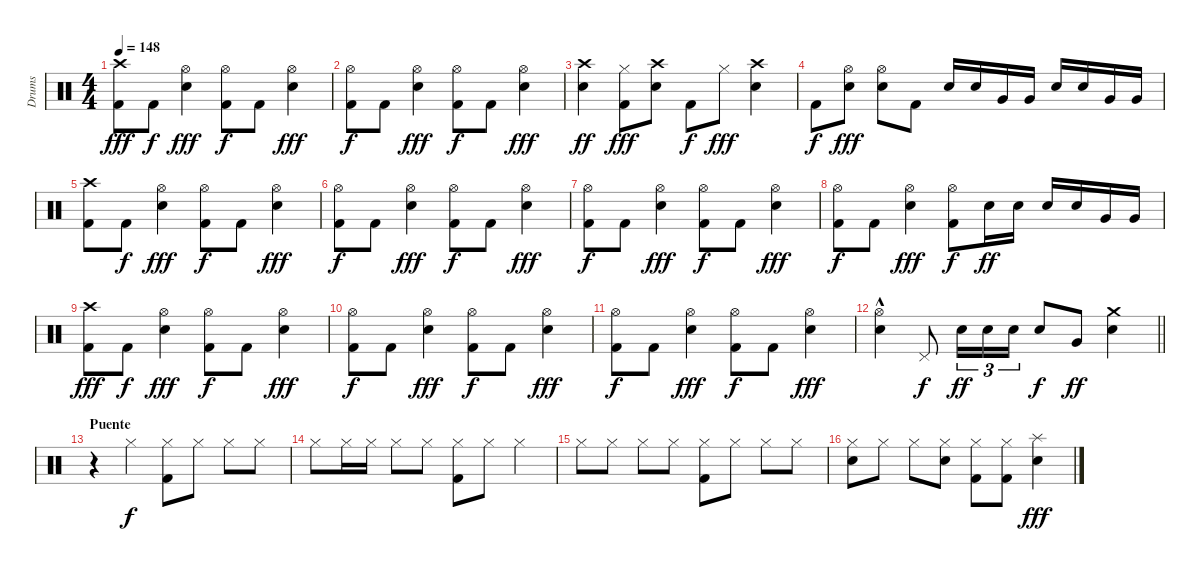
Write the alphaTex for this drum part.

\track ("Drums" "Drums") {instrument percussion}
\staff {score}
\articulation defaults
\ts (4 4)
\tempo 148
\clef neutral
\ks c
("Crash high (hit)" "Kick (hit) 2").8{dy fff} "Kick (hit) 2".8{dy f} ("Hi-Hat (open)" "Electric Snare (hit)").4{dy fff} ("Hi-Hat (open)" "Kick (hit) 2").8{dy f} "Kick (hit) 2".8 ("Hi-Hat (open)" "Electric Snare (hit)").4{dy fff} |
("Hi-Hat (open)" "Kick (hit) 2").8{dy f} "Kick (hit) 2".8 ("Hi-Hat (open)" "Electric Snare (hit)").4{dy fff} ("Hi-Hat (open)" "Kick (hit) 2").8{dy f} "Kick (hit) 2".8 ("Hi-Hat (open)" "Electric Snare (hit)").4{dy fff} |
("Crash high (hit)" "Electric Snare (hit)").4{dy ff} ("Hi-Hat (closed)" "Kick (hit) 2").8{dy fff} ("Crash high (hit)" "Electric Snare (hit)").8 "Kick (hit) 2".8{dy f} "Hi-Hat (closed)".8{dy fff} ("Crash high (hit)" "Electric Snare (hit)").4 |
"Kick (hit) 2".8{dy f} ("Hi-Hat (open)" "Electric Snare (hit)").8{dy fff} ("Hi-Hat (open)" "Electric Snare (hit)").8 "Kick (hit) 2".8 "Electric Snare (hit)".16 "Electric Snare (hit)".16 "Very Low Tom (hit)".16 "Very Low Tom (hit)".16 "Electric Snare (hit)".16 "Electric Snare (hit)".16 "Very Low Tom (hit)".16 "Very Low Tom (hit)".16 |
("Crash high (hit)" "Kick (hit) 2").8 "Kick (hit) 2".8{dy f} ("Hi-Hat (open)" "Electric Snare (hit)").4{dy fff} ("Hi-Hat (open)" "Kick (hit) 2").8{dy f} "Kick (hit) 2".8 ("Hi-Hat (open)" "Electric Snare (hit)").4{dy fff} |
("Hi-Hat (open)" "Kick (hit) 2").8{dy f} "Kick (hit) 2".8 ("Hi-Hat (open)" "Electric Snare (hit)").4{dy fff} ("Hi-Hat (open)" "Kick (hit) 2").8{dy f} "Kick (hit) 2".8 ("Hi-Hat (open)" "Electric Snare (hit)").4{dy fff} |
("Hi-Hat (open)" "Kick (hit) 2").8{dy f} "Kick (hit) 2".8 ("Hi-Hat (open)" "Electric Snare (hit)").4{dy fff} ("Hi-Hat (open)" "Kick (hit) 2").8{dy f} "Kick (hit) 2".8 ("Hi-Hat (open)" "Electric Snare (hit)").4{dy fff} |
("Hi-Hat (open)" "Kick (hit) 2").8{dy f} "Kick (hit) 2".8 ("Hi-Hat (open)" "Electric Snare (hit)").4{dy fff} ("Hi-Hat (open)" "Kick (hit) 2").8{dy f} "Electric Snare (hit)".16{dy ff} "Electric Snare (hit)".16 "Electric Snare (hit)".16 "Electric Snare (hit)".16 "Very Low Tom (hit)".16 "Very Low Tom (hit)".16 |
("Crash high (hit)" "Kick (hit) 2").8{dy fff} "Kick (hit) 2".8{dy f} ("Hi-Hat (open)" "Electric Snare (hit)").4{dy fff} ("Hi-Hat (open)" "Kick (hit) 2").8{dy f} "Kick (hit) 2".8 ("Hi-Hat (open)" "Electric Snare (hit)").4{dy fff} |
("Hi-Hat (open)" "Kick (hit) 2").8{dy f} "Kick (hit) 2".8 ("Hi-Hat (open)" "Electric Snare (hit)").4{dy fff} ("Hi-Hat (open)" "Kick (hit) 2").8{dy f} "Kick (hit) 2".8 ("Hi-Hat (open)" "Electric Snare (hit)").4{dy fff} |
("Hi-Hat (open)" "Kick (hit) 2").8{dy f} "Kick (hit) 2".8 ("Hi-Hat (open)" "Electric Snare (hit)").4{dy fff} ("Hi-Hat (open)" "Kick (hit) 2").8{dy f} "Kick (hit) 2".8 ("Hi-Hat (open)" "Electric Snare (hit)").4{dy fff} |
\barLineRight lightlight
("Hi-Hat (open)" "Electric Snare (hit)"{hac}).4 "Pedal Hi-Hat (hit)".8{dy f} "Electric Snare (hit)".16{tu (3 2) dy ff} "Electric Snare (hit)".16{tu (3 2)} "Electric Snare (hit)".16{tu (3 2)} "Electric Snare (hit)".8{dy f} "Very Low Tom (hit)".8{dy ff} ("Crash medium (hit)" "Electric Snare (hit)").4 |
\section ("" "Puente")
r.4 "Hi-Hat (closed)".4{dy f} ("Hi-Hat (closed)" "Kick (hit) 2").8 "Hi-Hat (closed)".8 "Hi-Hat (closed)".8 "Hi-Hat (closed)".8 |
"Hi-Hat (closed)".8 "Hi-Hat (closed)".16 "Hi-Hat (closed)".16 "Hi-Hat (closed)".8 "Hi-Hat (closed)".8 ("Hi-Hat (closed)" "Kick (hit) 2").8 "Hi-Hat (closed)".8 "Hi-Hat (closed)".4 |
"Hi-Hat (closed)".8 "Hi-Hat (closed)".8 "Hi-Hat (closed)".8 "Hi-Hat (closed)".8 ("Hi-Hat (closed)" "Kick (hit) 2").8 "Hi-Hat (closed)".8 "Hi-Hat (closed)".8 "Hi-Hat (closed)".8 |
("Hi-Hat (closed)" "Electric Snare (hit)").8 "Hi-Hat (closed)".8 "Hi-Hat (closed)".8 ("Hi-Hat (closed)" "Electric Snare (hit)").8 ("Hi-Hat (closed)" "Kick (hit) 2").8 ("Hi-Hat (closed)" "Kick (hit) 2").8 ("Splash (hit)" "Electric Snare (hit)").4{dy fff}
